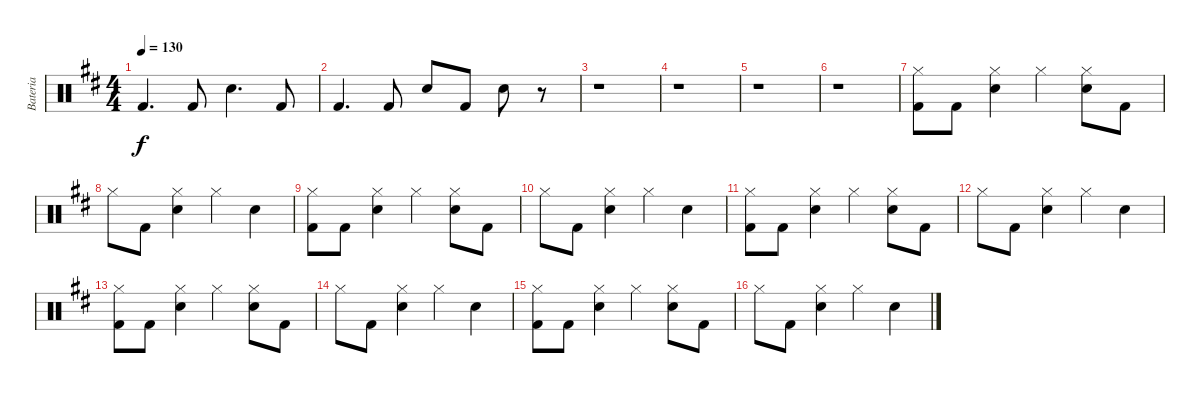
\track ("Bateria" "Bateria") {instrument percussion}
\staff {score}
\articulation defaults
\ts (4 4)
\tempo 130
\clef neutral
\ks d "Kick (hit) 2".4{d dy f} "Kick (hit) 2".8 "Electric Snare (hit)".4{d} "Kick (hit) 2".8
|
"Kick (hit) 2".4{d} "Kick (hit) 2".8 "Electric Snare (hit)".8 "Kick (hit) 2".8 "Electric Snare (hit)".8 r.8 |
r.1 |
r.1 |
r.1 |
r.1 |
("Hi-Hat (closed)" "Kick (hit) 2").8 "Kick (hit) 2".8 ("Hi-Hat (closed)" "Electric Snare (hit)").4 "Hi-Hat (closed)".4 ("Hi-Hat (closed)" "Electric Snare (hit)").8 "Kick (hit) 2".8 |
"Hi-Hat (closed)".8 "Kick (hit) 2".8 ("Hi-Hat (closed)" "Electric Snare (hit)").4 "Hi-Hat (closed)".4 "Electric Snare (hit)".4 |
("Hi-Hat (closed)" "Kick (hit) 2").8 "Kick (hit) 2".8 ("Hi-Hat (closed)" "Electric Snare (hit)").4 "Hi-Hat (closed)".4 ("Hi-Hat (closed)" "Electric Snare (hit)").8 "Kick (hit) 2".8 |
"Hi-Hat (closed)".8 "Kick (hit) 2".8 ("Hi-Hat (closed)" "Electric Snare (hit)").4 "Hi-Hat (closed)".4 "Electric Snare (hit)".4 |
("Hi-Hat (closed)" "Kick (hit) 2").8 "Kick (hit) 2".8 ("Hi-Hat (closed)" "Electric Snare (hit)").4 "Hi-Hat (closed)".4 ("Hi-Hat (closed)" "Electric Snare (hit)").8 "Kick (hit) 2".8 |
"Hi-Hat (closed)".8 "Kick (hit) 2".8 ("Hi-Hat (closed)" "Electric Snare (hit)").4 "Hi-Hat (closed)".4 "Electric Snare (hit)".4 |
("Hi-Hat (closed)" "Kick (hit) 2").8 "Kick (hit) 2".8 ("Hi-Hat (closed)" "Electric Snare (hit)").4 "Hi-Hat (closed)".4 ("Hi-Hat (closed)" "Electric Snare (hit)").8 "Kick (hit) 2".8 |
"Hi-Hat (closed)".8 "Kick (hit) 2".8 ("Hi-Hat (closed)" "Electric Snare (hit)").4 "Hi-Hat (closed)".4 "Electric Snare (hit)".4 |
("Hi-Hat (closed)" "Kick (hit) 2").8 "Kick (hit) 2".8 ("Hi-Hat (closed)" "Electric Snare (hit)").4 "Hi-Hat (closed)".4 ("Hi-Hat (closed)" "Electric Snare (hit)").8 "Kick (hit) 2".8 |
"Hi-Hat (closed)".8 "Kick (hit) 2".8 ("Hi-Hat (closed)" "Electric Snare (hit)").4 "Hi-Hat (closed)".4 "Electric Snare (hit)".4
